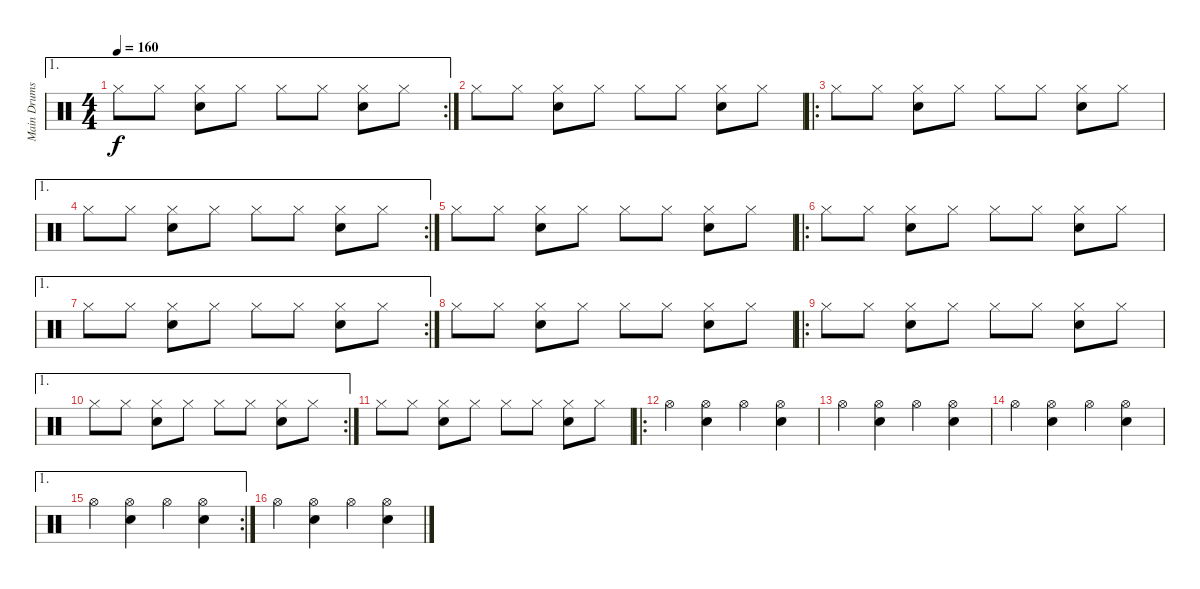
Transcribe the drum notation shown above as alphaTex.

\track ("Main Drumset" "Main Drums") {instrument percussion}
\staff {score}
\articulation defaults
\ae 1
\rc 2
\ts (4 4)
\tempo 160
\clef neutral
\ks c "Hi-Hat (closed)".8{dy f} "Hi-Hat (closed)".8
("Hi-Hat (closed)" "Electric Snare (hit)").8 "Hi-Hat (closed)".8 "Hi-Hat (closed)".8 "Hi-Hat (closed)".8 ("Hi-Hat (closed)" "Electric Snare (hit)").8 "Hi-Hat (closed)".8 |
"Hi-Hat (closed)".8 "Hi-Hat (closed)".8 ("Hi-Hat (closed)" "Electric Snare (hit)").8 "Hi-Hat (closed)".8 "Hi-Hat (closed)".8 "Hi-Hat (closed)".8 ("Hi-Hat (closed)" "Electric Snare (hit)").8 "Hi-Hat (closed)".8 |
\ro "Hi-Hat (closed)".8 "Hi-Hat (closed)".8
("Hi-Hat (closed)" "Electric Snare (hit)").8 "Hi-Hat (closed)".8 "Hi-Hat (closed)".8 "Hi-Hat (closed)".8 ("Hi-Hat (closed)" "Electric Snare (hit)").8 "Hi-Hat (closed)".8 |
\ae 1
\rc 2 "Hi-Hat (closed)".8 "Hi-Hat (closed)".8
("Hi-Hat (closed)" "Electric Snare (hit)").8 "Hi-Hat (closed)".8 "Hi-Hat (closed)".8 "Hi-Hat (closed)".8 ("Hi-Hat (closed)" "Electric Snare (hit)").8 "Hi-Hat (closed)".8 |
"Hi-Hat (closed)".8 "Hi-Hat (closed)".8 ("Hi-Hat (closed)" "Electric Snare (hit)").8 "Hi-Hat (closed)".8 "Hi-Hat (closed)".8 "Hi-Hat (closed)".8 ("Hi-Hat (closed)" "Electric Snare (hit)").8 "Hi-Hat (closed)".8 |
\ro "Hi-Hat (closed)".8 "Hi-Hat (closed)".8
("Hi-Hat (closed)" "Electric Snare (hit)").8 "Hi-Hat (closed)".8 "Hi-Hat (closed)".8 "Hi-Hat (closed)".8 ("Hi-Hat (closed)" "Electric Snare (hit)").8 "Hi-Hat (closed)".8 |
\ae 1
\rc 2 "Hi-Hat (closed)".8 "Hi-Hat (closed)".8
("Hi-Hat (closed)" "Electric Snare (hit)").8 "Hi-Hat (closed)".8 "Hi-Hat (closed)".8 "Hi-Hat (closed)".8 ("Hi-Hat (closed)" "Electric Snare (hit)").8 "Hi-Hat (closed)".8 |
"Hi-Hat (closed)".8 "Hi-Hat (closed)".8 ("Hi-Hat (closed)" "Electric Snare (hit)").8 "Hi-Hat (closed)".8 "Hi-Hat (closed)".8 "Hi-Hat (closed)".8 ("Hi-Hat (closed)" "Electric Snare (hit)").8 "Hi-Hat (closed)".8 |
\ro "Hi-Hat (closed)".8 "Hi-Hat (closed)".8
("Hi-Hat (closed)" "Electric Snare (hit)").8 "Hi-Hat (closed)".8 "Hi-Hat (closed)".8 "Hi-Hat (closed)".8 ("Hi-Hat (closed)" "Electric Snare (hit)").8 "Hi-Hat (closed)".8 |
\ae 1
\rc 2 "Hi-Hat (closed)".8 "Hi-Hat (closed)".8
("Hi-Hat (closed)" "Electric Snare (hit)").8 "Hi-Hat (closed)".8 "Hi-Hat (closed)".8 "Hi-Hat (closed)".8 ("Hi-Hat (closed)" "Electric Snare (hit)").8 "Hi-Hat (closed)".8 |
"Hi-Hat (closed)".8 "Hi-Hat (closed)".8 ("Hi-Hat (closed)" "Electric Snare (hit)").8 "Hi-Hat (closed)".8 "Hi-Hat (closed)".8 "Hi-Hat (closed)".8 ("Hi-Hat (closed)" "Electric Snare (hit)").8 "Hi-Hat (closed)".8 |
\ro "Hi-Hat (open)".4
("Hi-Hat (open)" "Electric Snare (hit)").4 "Hi-Hat (open)".4 ("Hi-Hat (open)" "Electric Snare (hit)").4 |
"Hi-Hat (open)".4 ("Hi-Hat (open)" "Electric Snare (hit)").4 "Hi-Hat (open)".4 ("Hi-Hat (open)" "Electric Snare (hit)").4 |
"Hi-Hat (open)".4 ("Hi-Hat (open)" "Electric Snare (hit)").4 "Hi-Hat (open)".4 ("Hi-Hat (open)" "Electric Snare (hit)").4 |
\ae 1
\rc 2 "Hi-Hat (open)".4
("Hi-Hat (open)" "Electric Snare (hit)").4 "Hi-Hat (open)".4 ("Hi-Hat (open)" "Electric Snare (hit)").4 |
"Hi-Hat (open)".4 ("Hi-Hat (open)" "Electric Snare (hit)").4 "Hi-Hat (open)".4 ("Hi-Hat (open)" "Electric Snare (hit)").4
